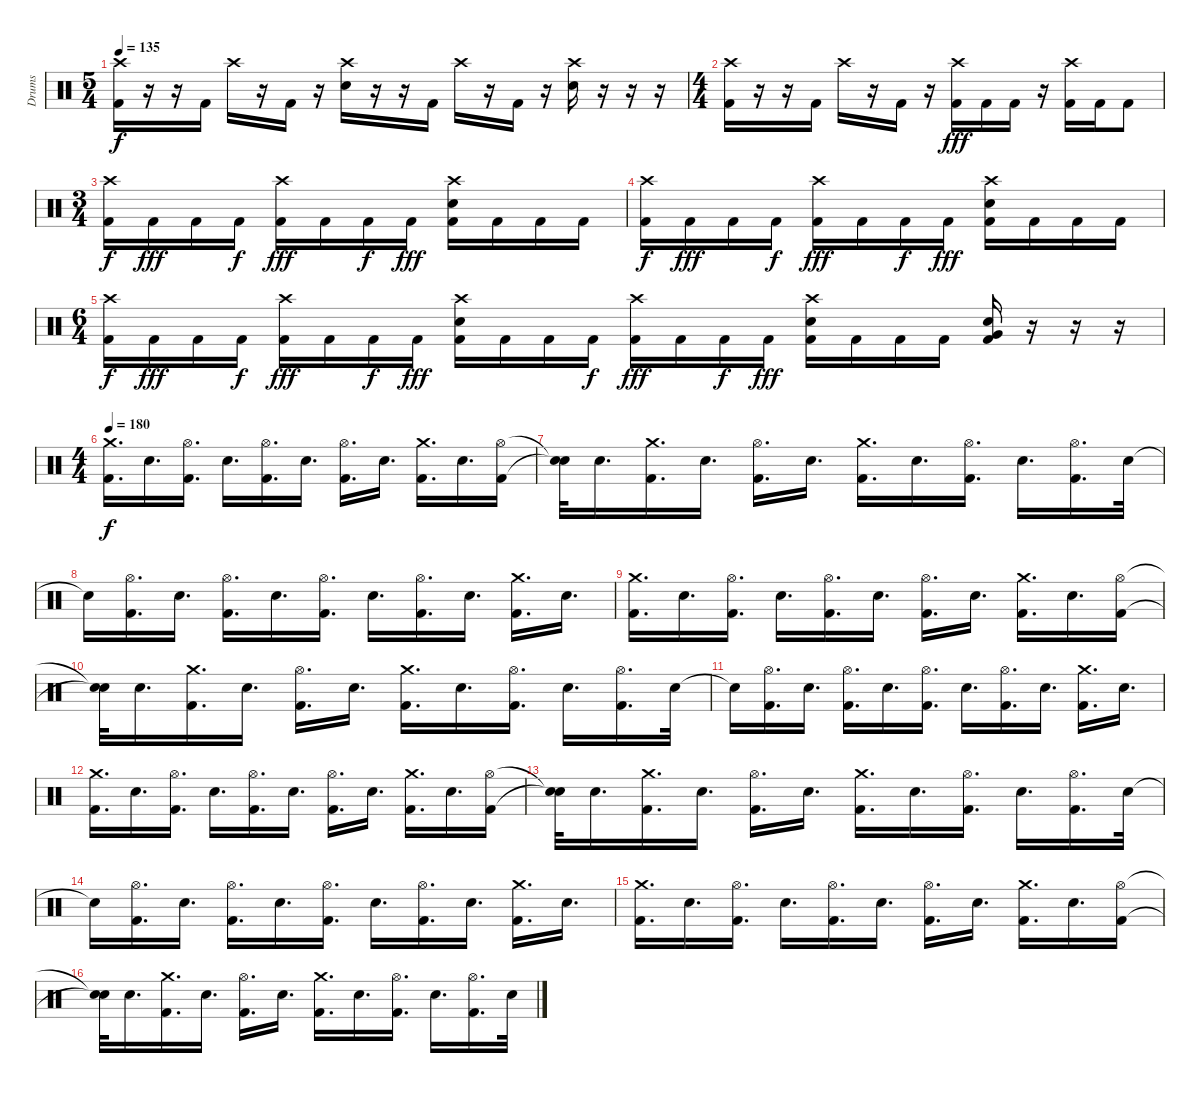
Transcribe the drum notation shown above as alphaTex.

\track ("Drums" "Drums") {instrument percussion}
\staff {score}
\articulation defaults
\ts (5 4)
\tempo 135
\clef neutral
\ks c
("Crash high (hit)" "Kick (hit) 2").16{dy f} r.16 r.16 "Kick (hit) 2".16 "Crash high (hit)".16 r.16 "Kick (hit) 2".16 r.16 ("Crash high (hit)" "Electric Snare (hit)").16 r.16 r.16 "Kick (hit) 2".16 "Crash high (hit)".16 r.16 "Kick (hit) 2".16 r.16 ("Crash high (hit)" "Electric Snare (hit)").16 r.16 r.16 r.16 |
\ts (4 4)
("Crash high (hit)" "Kick (hit) 2").16 r.16 r.16 "Kick (hit) 2".16 "Crash high (hit)".16 r.16 "Kick (hit) 2".16 r.16 ("Crash high (hit)" "Kick (hit) 2").16{dy fff} "Kick (hit) 2".16 "Kick (hit) 2".16 r.16 ("Crash high (hit)" "Kick (hit) 2").16 "Kick (hit) 2".16 "Kick (hit) 2".8 |
\ts (3 4)
("Crash high (hit)" "Kick (hit) 2").16{dy f} "Kick (hit) 2".16{dy fff} "Kick (hit) 2".16 "Kick (hit) 2".16{dy f} ("Crash high (hit)" "Kick (hit) 2").16{dy fff} "Kick (hit) 2".16 "Kick (hit) 2".16{dy f} "Kick (hit) 2".16{dy fff} ("Crash high (hit)" "Electric Snare (hit)" "Kick (hit) 2").16 "Kick (hit) 2".16 "Kick (hit) 2".16 "Kick (hit) 2".16 |
("Crash high (hit)" "Kick (hit) 2").16{dy f} "Kick (hit) 2".16{dy fff} "Kick (hit) 2".16 "Kick (hit) 2".16{dy f} ("Crash high (hit)" "Kick (hit) 2").16{dy fff} "Kick (hit) 2".16 "Kick (hit) 2".16{dy f} "Kick (hit) 2".16{dy fff} ("Crash high (hit)" "Electric Snare (hit)" "Kick (hit) 2").16 "Kick (hit) 2".16 "Kick (hit) 2".16 "Kick (hit) 2".16 |
\ts (6 4)
("Crash high (hit)" "Kick (hit) 2").16{dy f} "Kick (hit) 2".16{dy fff} "Kick (hit) 2".16 "Kick (hit) 2".16{dy f} ("Crash high (hit)" "Kick (hit) 2").16{dy fff} "Kick (hit) 2".16 "Kick (hit) 2".16{dy f} "Kick (hit) 2".16{dy fff} ("Crash high (hit)" "Electric Snare (hit)" "Kick (hit) 2").16 "Kick (hit) 2".16 "Kick (hit) 2".16 "Kick (hit) 2".16{dy f} ("Crash high (hit)" "Kick (hit) 2").16{dy fff} "Kick (hit) 2".16 "Kick (hit) 2".16{dy f} "Kick (hit) 2".16{dy fff} ("Crash high (hit)" "Electric Snare (hit)" "Kick (hit) 2").16 "Kick (hit) 2".16 "Kick (hit) 2".16 "Kick (hit) 2".16 ("Very Low Tom (hit)" "Electric Snare (hit)" "Kick (hit) 2").16 r.16 r.16 r.16 |
\ts (4 4)
\tempo 180
("Crash medium (hit)" "Kick (hit) 2").16{d dy f} "Electric Snare (hit)".16{d} ("Hi-Hat (open)" "Kick (hit) 2").16{d} "Electric Snare (hit)".16{d} ("Hi-Hat (open)" "Kick (hit) 2").16{d} "Electric Snare (hit)".16{d} ("Hi-Hat (open)" "Kick (hit) 2").16{d} "Electric Snare (hit)".16{d} ("Crash medium (hit)" "Kick (hit) 2").16{d} "Electric Snare (hit)".16{d} ("Hi-Hat (open)" "Kick (hit) 2").16 |
("Snare (hit)"{t} "Snare (hit)"{t}).32 "Electric Snare (hit)".16{d} ("Crash medium (hit)" "Kick (hit) 2").16{d} "Electric Snare (hit)".16{d} ("Hi-Hat (open)" "Kick (hit) 2").16{d} "Electric Snare (hit)".16{d} ("Crash medium (hit)" "Kick (hit) 2").16{d} "Electric Snare (hit)".16{d} ("Hi-Hat (open)" "Kick (hit) 2").16{d} "Electric Snare (hit)".16{d} ("Hi-Hat (open)" "Kick (hit) 2").16{d} "Electric Snare (hit)".32 |
"Snare (hit)"{t}.16 ("Hi-Hat (open)" "Kick (hit) 2").16{d} "Electric Snare (hit)".16{d} ("Hi-Hat (open)" "Kick (hit) 2").16{d} "Electric Snare (hit)".16{d} ("Hi-Hat (open)" "Kick (hit) 2").16{d} "Electric Snare (hit)".16{d} ("Hi-Hat (open)" "Kick (hit) 2").16{d} "Electric Snare (hit)".16{d} ("Crash medium (hit)" "Kick (hit) 2").16{d} "Electric Snare (hit)".16{d} |
("Crash medium (hit)" "Kick (hit) 2").16{d} "Electric Snare (hit)".16{d} ("Hi-Hat (open)" "Kick (hit) 2").16{d} "Electric Snare (hit)".16{d} ("Hi-Hat (open)" "Kick (hit) 2").16{d} "Electric Snare (hit)".16{d} ("Hi-Hat (open)" "Kick (hit) 2").16{d} "Electric Snare (hit)".16{d} ("Crash medium (hit)" "Kick (hit) 2").16{d} "Electric Snare (hit)".16{d} ("Hi-Hat (open)" "Kick (hit) 2").16 |
("Snare (hit)"{t} "Snare (hit)"{t}).32 "Electric Snare (hit)".16{d} ("Crash medium (hit)" "Kick (hit) 2").16{d} "Electric Snare (hit)".16{d} ("Hi-Hat (open)" "Kick (hit) 2").16{d} "Electric Snare (hit)".16{d} ("Crash medium (hit)" "Kick (hit) 2").16{d} "Electric Snare (hit)".16{d} ("Hi-Hat (open)" "Kick (hit) 2").16{d} "Electric Snare (hit)".16{d} ("Hi-Hat (open)" "Kick (hit) 2").16{d} "Electric Snare (hit)".32 |
"Snare (hit)"{t}.16 ("Hi-Hat (open)" "Kick (hit) 2").16{d} "Electric Snare (hit)".16{d} ("Hi-Hat (open)" "Kick (hit) 2").16{d} "Electric Snare (hit)".16{d} ("Hi-Hat (open)" "Kick (hit) 2").16{d} "Electric Snare (hit)".16{d} ("Hi-Hat (open)" "Kick (hit) 2").16{d} "Electric Snare (hit)".16{d} ("Crash medium (hit)" "Kick (hit) 2").16{d} "Electric Snare (hit)".16{d} |
("Crash medium (hit)" "Kick (hit) 2").16{d} "Electric Snare (hit)".16{d} ("Hi-Hat (open)" "Kick (hit) 2").16{d} "Electric Snare (hit)".16{d} ("Hi-Hat (open)" "Kick (hit) 2").16{d} "Electric Snare (hit)".16{d} ("Hi-Hat (open)" "Kick (hit) 2").16{d} "Electric Snare (hit)".16{d} ("Crash medium (hit)" "Kick (hit) 2").16{d} "Electric Snare (hit)".16{d} ("Hi-Hat (open)" "Kick (hit) 2").16 |
("Snare (hit)"{t} "Snare (hit)"{t}).32 "Electric Snare (hit)".16{d} ("Crash medium (hit)" "Kick (hit) 2").16{d} "Electric Snare (hit)".16{d} ("Hi-Hat (open)" "Kick (hit) 2").16{d} "Electric Snare (hit)".16{d} ("Crash medium (hit)" "Kick (hit) 2").16{d} "Electric Snare (hit)".16{d} ("Hi-Hat (open)" "Kick (hit) 2").16{d} "Electric Snare (hit)".16{d} ("Hi-Hat (open)" "Kick (hit) 2").16{d} "Electric Snare (hit)".32 |
"Snare (hit)"{t}.16 ("Hi-Hat (open)" "Kick (hit) 2").16{d} "Electric Snare (hit)".16{d} ("Hi-Hat (open)" "Kick (hit) 2").16{d} "Electric Snare (hit)".16{d} ("Hi-Hat (open)" "Kick (hit) 2").16{d} "Electric Snare (hit)".16{d} ("Hi-Hat (open)" "Kick (hit) 2").16{d} "Electric Snare (hit)".16{d} ("Crash medium (hit)" "Kick (hit) 2").16{d} "Electric Snare (hit)".16{d} |
("Crash medium (hit)" "Kick (hit) 2").16{d} "Electric Snare (hit)".16{d} ("Hi-Hat (open)" "Kick (hit) 2").16{d} "Electric Snare (hit)".16{d} ("Hi-Hat (open)" "Kick (hit) 2").16{d} "Electric Snare (hit)".16{d} ("Hi-Hat (open)" "Kick (hit) 2").16{d} "Electric Snare (hit)".16{d} ("Crash medium (hit)" "Kick (hit) 2").16{d} "Electric Snare (hit)".16{d} ("Hi-Hat (open)" "Kick (hit) 2").16 |
("Snare (hit)"{t} "Snare (hit)"{t}).32 "Electric Snare (hit)".16{d} ("Crash medium (hit)" "Kick (hit) 2").16{d} "Electric Snare (hit)".16{d} ("Hi-Hat (open)" "Kick (hit) 2").16{d} "Electric Snare (hit)".16{d} ("Crash medium (hit)" "Kick (hit) 2").16{d} "Electric Snare (hit)".16{d} ("Hi-Hat (open)" "Kick (hit) 2").16{d} "Electric Snare (hit)".16{d} ("Hi-Hat (open)" "Kick (hit) 2").16{d} "Electric Snare (hit)".32
